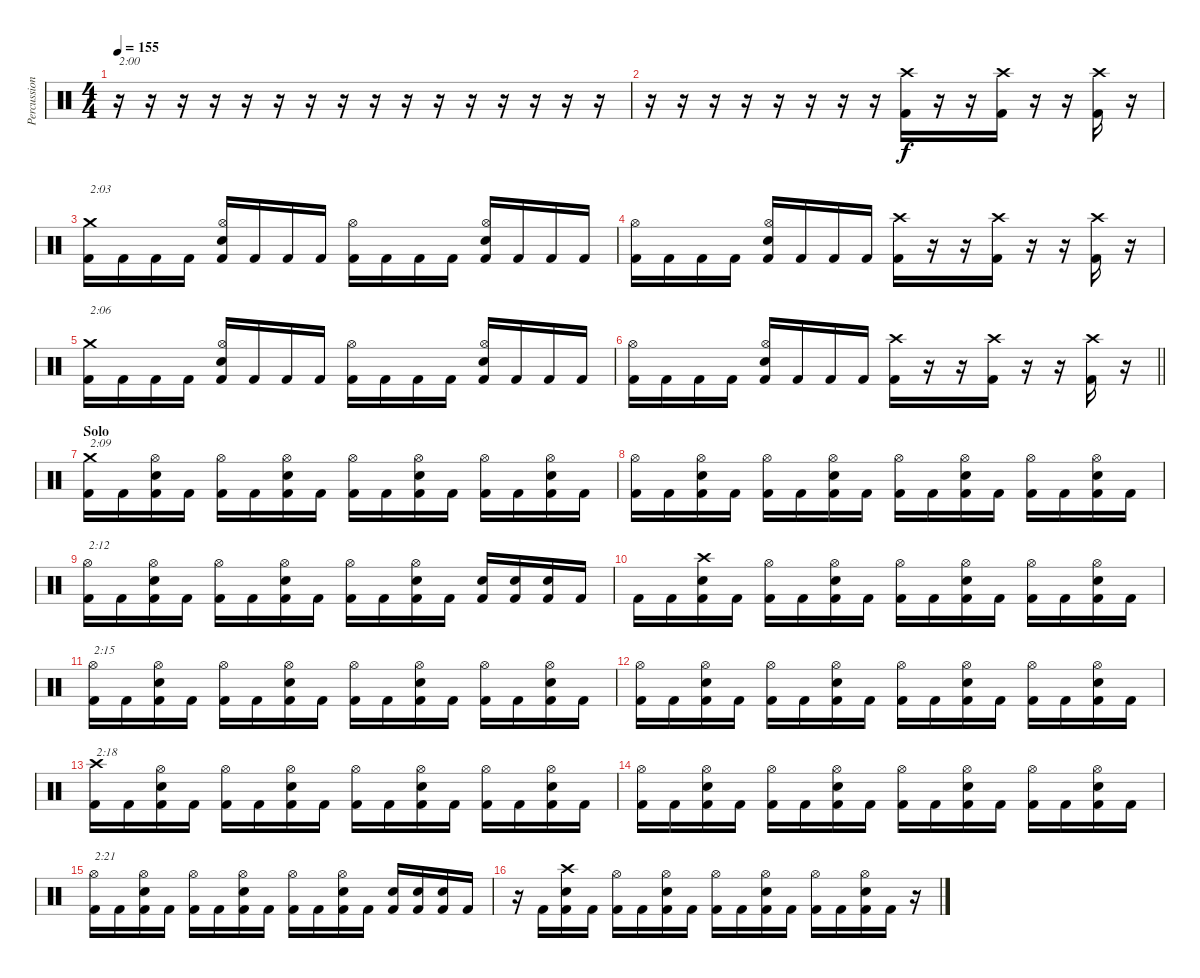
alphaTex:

\track ("Percussion" "Percussion") {instrument percussion}
\staff {score}
\articulation defaults
\ts (4 4)
\tempo 155
\clef neutral
\ks c
r.16{txt "2:00" dy f volume 0} r.16 r.16 r.16 r.16 r.16 r.16 r.16 r.16 r.16 r.16 r.16 r.16 r.16 r.16 r.16 |
r.16 r.16 r.16 r.16 r.16 r.16 r.16 r.16 ("Crash high (hit)" "Kick (hit) 2").16{volume 13} r.16 r.16{volume 0} ("Crash high (hit)" "Kick (hit) 2").16{volume 13} r.16 r.16{volume 0} ("Crash high (hit)" "Kick (hit) 2").16{volume 13} r.16 |
("Crash medium (hit)" "Kick (hit) 2").16{txt "2:03"} "Kick (hit) 2".16 "Kick (hit) 2".16 "Kick (hit) 2".16 ("Hi-Hat (open)" "Electric Snare (hit)" "Kick (hit) 2").16 "Kick (hit) 2".16 "Kick (hit) 2".16 "Kick (hit) 2".16 ("Hi-Hat (open)" "Kick (hit) 2").16 "Kick (hit) 2".16 "Kick (hit) 2".16 "Kick (hit) 2".16 ("Hi-Hat (open)" "Electric Snare (hit)" "Kick (hit) 2").16 "Kick (hit) 2".16 "Kick (hit) 2".16 "Kick (hit) 2".16 |
("Hi-Hat (open)" "Kick (hit) 2").16 "Kick (hit) 2".16 "Kick (hit) 2".16 "Kick (hit) 2".16 ("Hi-Hat (open)" "Electric Snare (hit)" "Kick (hit) 2").16 "Kick (hit) 2".16 "Kick (hit) 2".16 "Kick (hit) 2".16 ("Crash high (hit)" "Kick (hit) 2").16{volume 13} r.16 r.16{volume 0} ("Crash high (hit)" "Kick (hit) 2").16{volume 13} r.16 r.16{volume 0} ("Crash high (hit)" "Kick (hit) 2").16{volume 13} r.16 |
("Crash medium (hit)" "Kick (hit) 2").16{txt "2:06"} "Kick (hit) 2".16 "Kick (hit) 2".16 "Kick (hit) 2".16 ("Hi-Hat (open)" "Electric Snare (hit)" "Kick (hit) 2").16 "Kick (hit) 2".16 "Kick (hit) 2".16 "Kick (hit) 2".16 ("Hi-Hat (open)" "Kick (hit) 2").16 "Kick (hit) 2".16 "Kick (hit) 2".16 "Kick (hit) 2".16 ("Hi-Hat (open)" "Electric Snare (hit)" "Kick (hit) 2").16 "Kick (hit) 2".16 "Kick (hit) 2".16 "Kick (hit) 2".16 |
\barLineRight lightlight
("Hi-Hat (open)" "Kick (hit) 2").16 "Kick (hit) 2".16 "Kick (hit) 2".16 "Kick (hit) 2".16 ("Hi-Hat (open)" "Electric Snare (hit)" "Kick (hit) 2").16 "Kick (hit) 2".16 "Kick (hit) 2".16 "Kick (hit) 2".16 ("Crash high (hit)" "Kick (hit) 2").16{volume 13} r.16 r.16{volume 0} ("Crash high (hit)" "Kick (hit) 2").16{volume 13} r.16 r.16{volume 0} ("Crash high (hit)" "Kick (hit) 2").16{volume 13} r.16 |
\section ("" "Solo")
("Crash medium (hit)" "Kick (hit) 2").16{txt "2:09"} "Kick (hit) 2".16 ("Hi-Hat (open)" "Electric Snare (hit)" "Kick (hit) 2").16 "Kick (hit) 2".16 ("Hi-Hat (open)" "Kick (hit) 2").16 "Kick (hit) 2".16 ("Hi-Hat (open)" "Electric Snare (hit)" "Kick (hit) 2").16 "Kick (hit) 2".16 ("Hi-Hat (open)" "Kick (hit) 2").16 "Kick (hit) 2".16 ("Hi-Hat (open)" "Electric Snare (hit)" "Kick (hit) 2").16 "Kick (hit) 2".16 ("Hi-Hat (open)" "Kick (hit) 2").16 "Kick (hit) 2".16 ("Hi-Hat (open)" "Electric Snare (hit)" "Kick (hit) 2").16 "Kick (hit) 2".16 |
("Hi-Hat (open)" "Kick (hit) 2").16 "Kick (hit) 2".16 ("Hi-Hat (open)" "Electric Snare (hit)" "Kick (hit) 2").16 "Kick (hit) 2".16 ("Hi-Hat (open)" "Kick (hit) 2").16 "Kick (hit) 2".16 ("Hi-Hat (open)" "Electric Snare (hit)" "Kick (hit) 2").16 "Kick (hit) 2".16 ("Hi-Hat (open)" "Kick (hit) 2").16 "Kick (hit) 2".16 ("Hi-Hat (open)" "Electric Snare (hit)" "Kick (hit) 2").16 "Kick (hit) 2".16 ("Hi-Hat (open)" "Kick (hit) 2").16 "Kick (hit) 2".16 ("Hi-Hat (open)" "Electric Snare (hit)" "Kick (hit) 2").16 "Kick (hit) 2".16 |
("Hi-Hat (open)" "Kick (hit) 2").16{txt "2:12"} "Kick (hit) 2".16 ("Hi-Hat (open)" "Electric Snare (hit)" "Kick (hit) 2").16 "Kick (hit) 2".16 ("Hi-Hat (open)" "Kick (hit) 2").16 "Kick (hit) 2".16 ("Hi-Hat (open)" "Electric Snare (hit)" "Kick (hit) 2").16 "Kick (hit) 2".16 ("Hi-Hat (open)" "Kick (hit) 2").16 "Kick (hit) 2".16 ("Hi-Hat (open)" "Electric Snare (hit)" "Kick (hit) 2").16 "Kick (hit) 2".16 ("Electric Snare (hit)" "Kick (hit) 2").16 ("Electric Snare (hit)" "Kick (hit) 2").16 ("Electric Snare (hit)" "Kick (hit) 2").16 "Kick (hit) 2".16 |
"Kick (hit) 2".16 "Kick (hit) 2".16 ("Crash high (hit)" "Electric Snare (hit)" "Kick (hit) 2").16 "Kick (hit) 2".16 ("Hi-Hat (open)" "Kick (hit) 2").16 "Kick (hit) 2".16 ("Hi-Hat (open)" "Electric Snare (hit)" "Kick (hit) 2").16 "Kick (hit) 2".16 ("Hi-Hat (open)" "Kick (hit) 2").16 "Kick (hit) 2".16 ("Hi-Hat (open)" "Electric Snare (hit)" "Kick (hit) 2").16 "Kick (hit) 2".16 ("Hi-Hat (open)" "Kick (hit) 2").16 "Kick (hit) 2".16 ("Hi-Hat (open)" "Electric Snare (hit)" "Kick (hit) 2").16 "Kick (hit) 2".16 |
("Hi-Hat (open)" "Kick (hit) 2").16{txt "2:15"} "Kick (hit) 2".16 ("Hi-Hat (open)" "Electric Snare (hit)" "Kick (hit) 2").16 "Kick (hit) 2".16 ("Hi-Hat (open)" "Kick (hit) 2").16 "Kick (hit) 2".16 ("Hi-Hat (open)" "Electric Snare (hit)" "Kick (hit) 2").16 "Kick (hit) 2".16 ("Hi-Hat (open)" "Kick (hit) 2").16 "Kick (hit) 2".16 ("Hi-Hat (open)" "Electric Snare (hit)" "Kick (hit) 2").16 "Kick (hit) 2".16 ("Hi-Hat (open)" "Kick (hit) 2").16 "Kick (hit) 2".16 ("Hi-Hat (open)" "Electric Snare (hit)" "Kick (hit) 2").16 "Kick (hit) 2".16 |
("Hi-Hat (open)" "Kick (hit) 2").16 "Kick (hit) 2".16 ("Hi-Hat (open)" "Electric Snare (hit)" "Kick (hit) 2").16 "Kick (hit) 2".16 ("Hi-Hat (open)" "Kick (hit) 2").16 "Kick (hit) 2".16 ("Hi-Hat (open)" "Electric Snare (hit)" "Kick (hit) 2").16 "Kick (hit) 2".16 ("Hi-Hat (open)" "Kick (hit) 2").16 "Kick (hit) 2".16 ("Hi-Hat (open)" "Electric Snare (hit)" "Kick (hit) 2").16 "Kick (hit) 2".16 ("Hi-Hat (open)" "Kick (hit) 2").16 "Kick (hit) 2".16 ("Hi-Hat (open)" "Electric Snare (hit)" "Kick (hit) 2").16 "Kick (hit) 2".16 |
("Crash high (hit)" "Kick (hit) 2").16{txt "2:18"} "Kick (hit) 2".16 ("Hi-Hat (open)" "Electric Snare (hit)" "Kick (hit) 2").16 "Kick (hit) 2".16 ("Hi-Hat (open)" "Kick (hit) 2").16 "Kick (hit) 2".16 ("Hi-Hat (open)" "Electric Snare (hit)" "Kick (hit) 2").16 "Kick (hit) 2".16 ("Hi-Hat (open)" "Kick (hit) 2").16 "Kick (hit) 2".16 ("Hi-Hat (open)" "Electric Snare (hit)" "Kick (hit) 2").16 "Kick (hit) 2".16 ("Hi-Hat (open)" "Kick (hit) 2").16 "Kick (hit) 2".16 ("Hi-Hat (open)" "Electric Snare (hit)" "Kick (hit) 2").16 "Kick (hit) 2".16 |
("Hi-Hat (open)" "Kick (hit) 2").16 "Kick (hit) 2".16 ("Hi-Hat (open)" "Electric Snare (hit)" "Kick (hit) 2").16 "Kick (hit) 2".16 ("Hi-Hat (open)" "Kick (hit) 2").16 "Kick (hit) 2".16 ("Hi-Hat (open)" "Electric Snare (hit)" "Kick (hit) 2").16 "Kick (hit) 2".16 ("Hi-Hat (open)" "Kick (hit) 2").16 "Kick (hit) 2".16 ("Hi-Hat (open)" "Electric Snare (hit)" "Kick (hit) 2").16 "Kick (hit) 2".16 ("Hi-Hat (open)" "Kick (hit) 2").16 "Kick (hit) 2".16 ("Hi-Hat (open)" "Electric Snare (hit)" "Kick (hit) 2").16 "Kick (hit) 2".16 |
("Hi-Hat (open)" "Kick (hit) 2").16{txt "2:21"} "Kick (hit) 2".16 ("Hi-Hat (open)" "Electric Snare (hit)" "Kick (hit) 2").16 "Kick (hit) 2".16 ("Hi-Hat (open)" "Kick (hit) 2").16 "Kick (hit) 2".16 ("Hi-Hat (open)" "Electric Snare (hit)" "Kick (hit) 2").16 "Kick (hit) 2".16 ("Hi-Hat (open)" "Kick (hit) 2").16 "Kick (hit) 2".16 ("Hi-Hat (open)" "Electric Snare (hit)" "Kick (hit) 2").16 "Kick (hit) 2".16 ("Electric Snare (hit)" "Kick (hit) 2").16 ("Electric Snare (hit)" "Kick (hit) 2").16 ("Electric Snare (hit)" "Kick (hit) 2").16 "Kick (hit) 2".16 |
r.16 "Kick (hit) 2".16 ("Crash high (hit)" "Electric Snare (hit)" "Kick (hit) 2").16 "Kick (hit) 2".16 ("Hi-Hat (open)" "Kick (hit) 2").16 "Kick (hit) 2".16 ("Hi-Hat (open)" "Electric Snare (hit)" "Kick (hit) 2").16 "Kick (hit) 2".16 ("Hi-Hat (open)" "Kick (hit) 2").16 "Kick (hit) 2".16 ("Hi-Hat (open)" "Electric Snare (hit)" "Kick (hit) 2").16 "Kick (hit) 2".16 ("Hi-Hat (open)" "Kick (hit) 2").16 "Kick (hit) 2".16 ("Hi-Hat (open)" "Electric Snare (hit)" "Kick (hit) 2").16 "Kick (hit) 2".16 r.16
